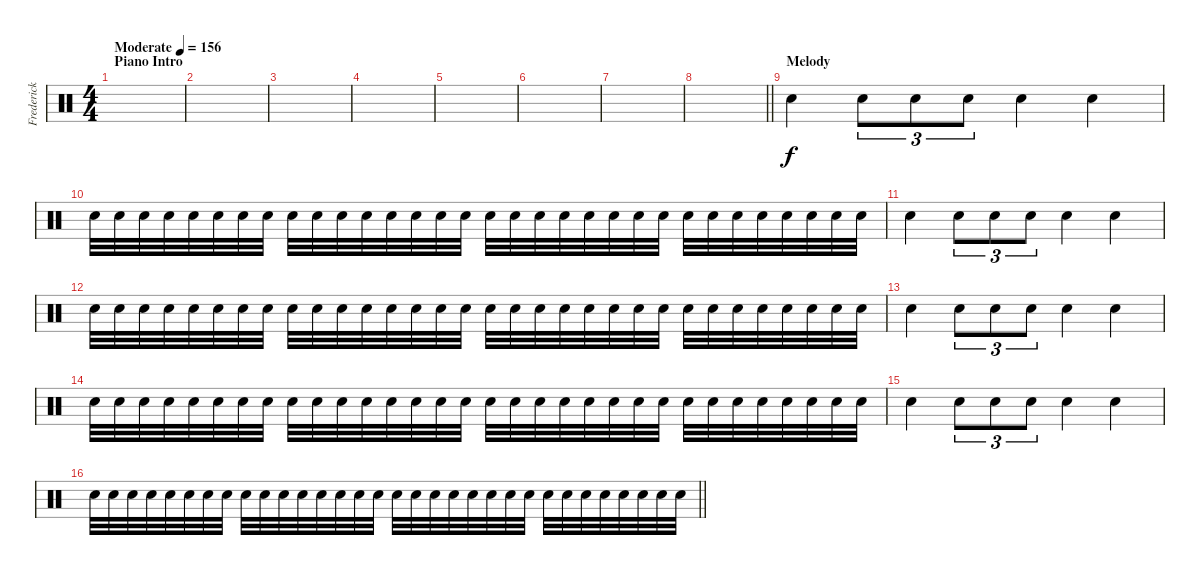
\track ("Frederick Ehmke" "Frederick ") {instrument percussion}
\staff {score}
\articulation defaults
\ts (4 4)
\section ("" "Piano Intro")
\tempo (156 "Moderate")
\clef neutral
\ks c
|
|
|
|
|
|
|
\barLineRight lightlight
|
\section ("" "Melody")
"Electric Snare (hit)".4{volume 8} "Electric Snare (hit)".8{tu (3 2)} "Electric Snare (hit)".8{tu (3 2)} "Electric Snare (hit)".8{tu (3 2)} "Electric Snare (hit)".4 "Electric Snare (hit)".4 |
"Electric Snare (hit)".32{volume 4} "Electric Snare (hit)".32 "Electric Snare (hit)".32 "Electric Snare (hit)".32 "Electric Snare (hit)".32 "Electric Snare (hit)".32 "Electric Snare (hit)".32 "Electric Snare (hit)".32 "Electric Snare (hit)".32 "Electric Snare (hit)".32 "Electric Snare (hit)".32 "Electric Snare (hit)".32 "Electric Snare (hit)".32 "Electric Snare (hit)".32 "Electric Snare (hit)".32 "Electric Snare (hit)".32 "Electric Snare (hit)".32 "Electric Snare (hit)".32 "Electric Snare (hit)".32 "Electric Snare (hit)".32 "Electric Snare (hit)".32 "Electric Snare (hit)".32 "Electric Snare (hit)".32 "Electric Snare (hit)".32 "Electric Snare (hit)".32 "Electric Snare (hit)".32 "Electric Snare (hit)".32 "Electric Snare (hit)".32 "Electric Snare (hit)".32 "Electric Snare (hit)".32 "Electric Snare (hit)".32 "Electric Snare (hit)".32 |
"Electric Snare (hit)".4{volume 8} "Electric Snare (hit)".8{tu (3 2)} "Electric Snare (hit)".8{tu (3 2)} "Electric Snare (hit)".8{tu (3 2)} "Electric Snare (hit)".4 "Electric Snare (hit)".4 |
"Electric Snare (hit)".32{volume 4} "Electric Snare (hit)".32 "Electric Snare (hit)".32 "Electric Snare (hit)".32 "Electric Snare (hit)".32 "Electric Snare (hit)".32 "Electric Snare (hit)".32 "Electric Snare (hit)".32 "Electric Snare (hit)".32 "Electric Snare (hit)".32 "Electric Snare (hit)".32 "Electric Snare (hit)".32 "Electric Snare (hit)".32 "Electric Snare (hit)".32 "Electric Snare (hit)".32 "Electric Snare (hit)".32 "Electric Snare (hit)".32 "Electric Snare (hit)".32 "Electric Snare (hit)".32 "Electric Snare (hit)".32 "Electric Snare (hit)".32 "Electric Snare (hit)".32 "Electric Snare (hit)".32 "Electric Snare (hit)".32 "Electric Snare (hit)".32 "Electric Snare (hit)".32 "Electric Snare (hit)".32 "Electric Snare (hit)".32 "Electric Snare (hit)".32 "Electric Snare (hit)".32 "Electric Snare (hit)".32 "Electric Snare (hit)".32 |
"Electric Snare (hit)".4{volume 8} "Electric Snare (hit)".8{tu (3 2)} "Electric Snare (hit)".8{tu (3 2)} "Electric Snare (hit)".8{tu (3 2)} "Electric Snare (hit)".4 "Electric Snare (hit)".4 |
"Electric Snare (hit)".32{volume 4} "Electric Snare (hit)".32 "Electric Snare (hit)".32 "Electric Snare (hit)".32 "Electric Snare (hit)".32 "Electric Snare (hit)".32 "Electric Snare (hit)".32 "Electric Snare (hit)".32 "Electric Snare (hit)".32 "Electric Snare (hit)".32 "Electric Snare (hit)".32 "Electric Snare (hit)".32 "Electric Snare (hit)".32 "Electric Snare (hit)".32 "Electric Snare (hit)".32 "Electric Snare (hit)".32 "Electric Snare (hit)".32 "Electric Snare (hit)".32 "Electric Snare (hit)".32 "Electric Snare (hit)".32 "Electric Snare (hit)".32 "Electric Snare (hit)".32 "Electric Snare (hit)".32 "Electric Snare (hit)".32 "Electric Snare (hit)".32 "Electric Snare (hit)".32 "Electric Snare (hit)".32 "Electric Snare (hit)".32 "Electric Snare (hit)".32 "Electric Snare (hit)".32 "Electric Snare (hit)".32 "Electric Snare (hit)".32 |
"Electric Snare (hit)".4{volume 8} "Electric Snare (hit)".8{tu (3 2)} "Electric Snare (hit)".8{tu (3 2)} "Electric Snare (hit)".8{tu (3 2)} "Electric Snare (hit)".4 "Electric Snare (hit)".4 |
\barLineRight lightlight "Electric Snare (hit)".32{volume 4} "Electric Snare (hit)".32 "Electric Snare (hit)".32 "Electric Snare (hit)".32 "Electric Snare (hit)".32 "Electric Snare (hit)".32 "Electric Snare (hit)".32 "Electric Snare (hit)".32 "Electric Snare (hit)".32 "Electric Snare (hit)".32 "Electric Snare (hit)".32 "Electric Snare (hit)".32 "Electric Snare (hit)".32 "Electric Snare (hit)".32 "Electric Snare (hit)".32 "Electric Snare (hit)".32 "Electric Snare (hit)".32 "Electric Snare (hit)".32 "Electric Snare (hit)".32 "Electric Snare (hit)".32 "Electric Snare (hit)".32 "Electric Snare (hit)".32 "Electric Snare (hit)".32 "Electric Snare (hit)".32 "Electric Snare (hit)".32 "Electric Snare (hit)".32 "Electric Snare (hit)".32 "Electric Snare (hit)".32 "Electric Snare (hit)".32 "Electric Snare (hit)".32 "Electric Snare (hit)".32 "Electric Snare (hit)".32
